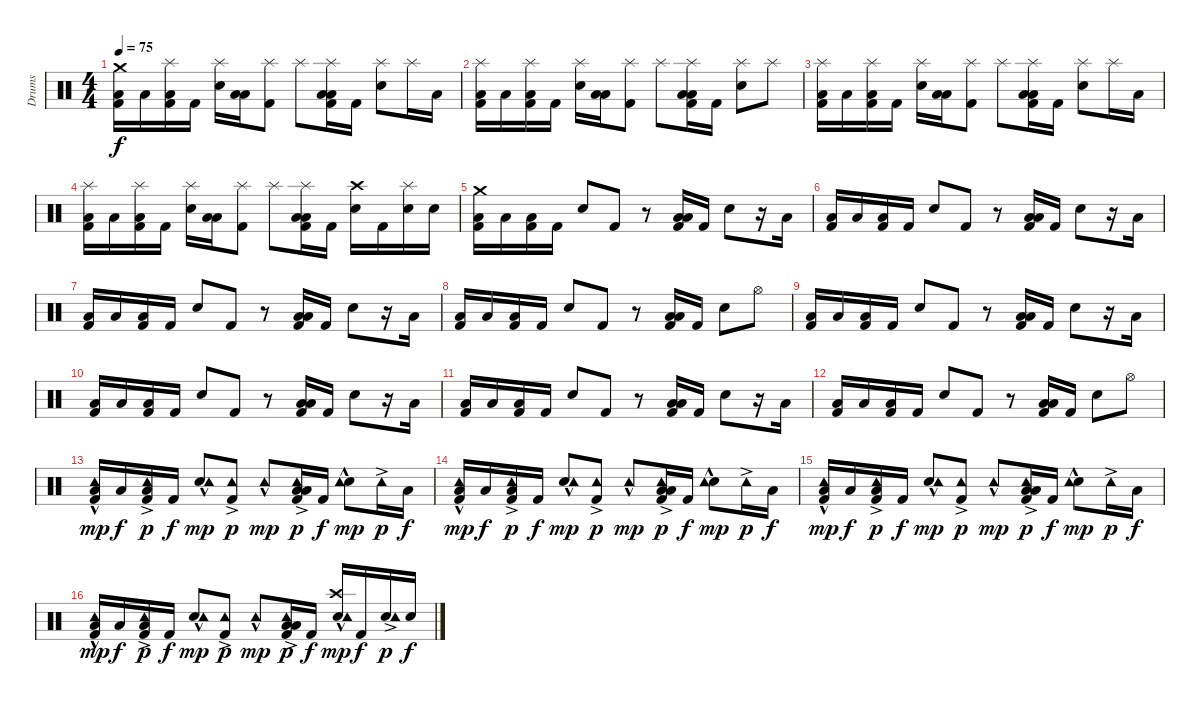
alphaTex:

\track ("Drums" "Drums") {instrument percussion}
\staff {score}
\articulation defaults
\ts (4 4)
\tempo 75
\clef neutral
\ks c
("Kick (hit) 2" "Low Floor Tom (hit)" "Crash medium (hit)").16{dy f} "Low Tom (hit)".16 ("Kick (hit) 2" "Low Floor Tom (hit)" "Splash (hit)").16 "Kick (hit) 2".16 ("Snare (hit) 2" "Splash (hit)").16 ("Low Tom (hit)" "Low Floor Tom (hit)").16 ("Kick (hit) 2" "Splash (hit)").8 "Splash (hit)".8 ("Kick (hit) 2" "Low Floor Tom (hit)" "Low Tom (hit)" "Splash (hit)").16 "Kick (hit) 2".16 ("Snare (hit) 2" "Splash (hit)").8 "Splash (hit)".16 "Low Tom (hit)".16 |
("Kick (hit) 2" "Low Floor Tom (hit)" "Splash (hit)").16 "Low Tom (hit)".16 ("Kick (hit) 2" "Low Floor Tom (hit)" "Splash (hit)").16 "Kick (hit) 2".16 ("Snare (hit) 2" "Splash (hit)").16 ("Low Tom (hit)" "Low Floor Tom (hit)").16 ("Kick (hit) 2" "Splash (hit)").8 "Splash (hit)".8 ("Kick (hit) 2" "Low Floor Tom (hit)" "Low Tom (hit)" "Splash (hit)").16 "Kick (hit) 2".16 ("Snare (hit) 2" "Splash (hit)").8 "Splash (hit)".8 |
("Kick (hit) 2" "Low Floor Tom (hit)" "Splash (hit)").16 "Low Tom (hit)".16 ("Kick (hit) 2" "Low Floor Tom (hit)" "Splash (hit)").16 "Kick (hit) 2".16 ("Snare (hit) 2" "Splash (hit)").16 ("Low Tom (hit)" "Low Floor Tom (hit)").16 ("Kick (hit) 2" "Splash (hit)").8 "Splash (hit)".8 ("Kick (hit) 2" "Low Floor Tom (hit)" "Low Tom (hit)" "Splash (hit)").16 "Kick (hit) 2".16 ("Snare (hit) 2" "Splash (hit)").8 "Splash (hit)".16 "Low Tom (hit)".16 |
("Kick (hit) 2" "Low Floor Tom (hit)" "Splash (hit)").16 "Low Tom (hit)".16 ("Kick (hit) 2" "Low Floor Tom (hit)" "Splash (hit)").16 "Kick (hit) 2".16 ("Snare (hit) 2" "Splash (hit)").16 ("Low Tom (hit)" "Low Floor Tom (hit)").16 ("Kick (hit) 2" "Splash (hit)").8 "Splash (hit)".8 ("Kick (hit) 2" "Low Floor Tom (hit)" "Low Tom (hit)" "Splash (hit)").16 "Kick (hit) 2".16 ("Snare (hit) 2" "Crash high (hit)").16 "Kick (hit) 2".16 ("Snare (hit) 2" "Splash (hit)").16 "Snare (hit) 2".16 |
("Kick (hit) 2" "Low Floor Tom (hit)" "Crash medium (hit)").16 "Low Tom (hit)".16 ("Kick (hit) 2" "Low Floor Tom (hit)").16 "Kick (hit) 2".16 "Snare (hit) 2".8 "Kick (hit) 2".8 r.8 ("Kick (hit) 2" "Low Floor Tom (hit)" "Low Tom (hit)").16 "Kick (hit) 2".16 "Snare (hit) 2".8 r.16 "Low Tom (hit)".16 |
("Kick (hit) 2" "Low Floor Tom (hit)").16 "Low Tom (hit)".16 ("Kick (hit) 2" "Low Floor Tom (hit)").16 "Kick (hit) 2".16 "Snare (hit) 2".8 "Kick (hit) 2".8 r.8 ("Kick (hit) 2" "Low Floor Tom (hit)" "Low Tom (hit)").16 "Kick (hit) 2".16 "Snare (hit) 2".8 r.16 "Low Tom (hit)".16 |
("Kick (hit) 2" "Low Floor Tom (hit)").16 "Low Tom (hit)".16 ("Kick (hit) 2" "Low Floor Tom (hit)").16 "Kick (hit) 2".16 "Snare (hit) 2".8 "Kick (hit) 2".8 r.8 ("Kick (hit) 2" "Low Floor Tom (hit)" "Low Tom (hit)").16 "Kick (hit) 2".16 "Snare (hit) 2".8 r.16 "Low Tom (hit)".16 |
("Kick (hit) 2" "Low Floor Tom (hit)").16 "Low Tom (hit)".16 ("Kick (hit) 2" "Low Floor Tom (hit)").16 "Kick (hit) 2".16 "Snare (hit) 2".8 "Kick (hit) 2".8 r.8 ("Kick (hit) 2" "Low Floor Tom (hit)" "Low Tom (hit)").16 "Kick (hit) 2".16 "Snare (hit) 2".8 "Hi-Hat (open)".8 |
("Kick (hit) 2" "Low Floor Tom (hit)").16 "Low Tom (hit)".16 ("Kick (hit) 2" "Low Floor Tom (hit)").16 "Kick (hit) 2".16 "Snare (hit) 2".8 "Kick (hit) 2".8 r.8 ("Kick (hit) 2" "Low Floor Tom (hit)" "Low Tom (hit)").16 "Kick (hit) 2".16 "Snare (hit) 2".8 r.16 "Low Tom (hit)".16 |
("Kick (hit) 2" "Low Floor Tom (hit)").16 "Low Tom (hit)".16 ("Kick (hit) 2" "Low Floor Tom (hit)").16 "Kick (hit) 2".16 "Snare (hit) 2".8 "Kick (hit) 2".8 r.8 ("Kick (hit) 2" "Low Floor Tom (hit)" "Low Tom (hit)").16 "Kick (hit) 2".16 "Snare (hit) 2".8 r.16 "Low Tom (hit)".16 |
("Kick (hit) 2" "Low Floor Tom (hit)").16 "Low Tom (hit)".16 ("Kick (hit) 2" "Low Floor Tom (hit)").16 "Kick (hit) 2".16 "Snare (hit) 2".8 "Kick (hit) 2".8 r.8 ("Kick (hit) 2" "Low Floor Tom (hit)" "Low Tom (hit)").16 "Kick (hit) 2".16 "Snare (hit) 2".8 r.16 "Low Tom (hit)".16 |
("Kick (hit) 2" "Low Floor Tom (hit)").16 "Low Tom (hit)".16 ("Kick (hit) 2" "Low Floor Tom (hit)").16 "Kick (hit) 2".16 "Snare (hit) 2".8 "Kick (hit) 2".8 r.8 ("Kick (hit) 2" "Low Floor Tom (hit)" "Low Tom (hit)").16 "Kick (hit) 2".16 "Snare (hit) 2".8 "Hi-Hat (open)".8 |
("Kick (hit) 2" "Low Floor Tom (hit)" "Tambourine (hit)"{hac}).16{dy mp} "Low Tom (hit)".16{dy f} ("Kick (hit) 2" "Low Floor Tom (hit)" "Tambourine (hit)"{ac}).16{dy p} "Kick (hit) 2".16{dy f} ("Snare (hit) 2" "Tambourine (hit)"{hac}).8{dy mp} ("Kick (hit) 2" "Tambourine (hit)"{ac}).8{dy p} "Tambourine (hit)"{hac}.8{dy mp} ("Kick (hit) 2" "Low Floor Tom (hit)" "Low Tom (hit)" "Tambourine (hit)"{ac}).16{dy p} "Kick (hit) 2".16{dy f} ("Snare (hit) 2" "Tambourine (hit)"{hac}).8{dy mp} "Tambourine (hit)"{ac}.16{dy p} "Low Tom (hit)".16{dy f} |
("Kick (hit) 2" "Low Floor Tom (hit)" "Tambourine (hit)"{hac}).16{dy mp} "Low Tom (hit)".16{dy f} ("Kick (hit) 2" "Low Floor Tom (hit)" "Tambourine (hit)"{ac}).16{dy p} "Kick (hit) 2".16{dy f} ("Snare (hit) 2" "Tambourine (hit)"{hac}).8{dy mp} ("Kick (hit) 2" "Tambourine (hit)"{ac}).8{dy p} "Tambourine (hit)"{hac}.8{dy mp} ("Kick (hit) 2" "Low Floor Tom (hit)" "Low Tom (hit)" "Tambourine (hit)"{ac}).16{dy p} "Kick (hit) 2".16{dy f} ("Snare (hit) 2" "Tambourine (hit)"{hac}).8{dy mp} "Tambourine (hit)"{ac}.16{dy p} "Low Tom (hit)".16{dy f} |
("Kick (hit) 2" "Low Floor Tom (hit)" "Tambourine (hit)"{hac}).16{dy mp} "Low Tom (hit)".16{dy f} ("Kick (hit) 2" "Low Floor Tom (hit)" "Tambourine (hit)"{ac}).16{dy p} "Kick (hit) 2".16{dy f} ("Snare (hit) 2" "Tambourine (hit)"{hac}).8{dy mp} ("Kick (hit) 2" "Tambourine (hit)"{ac}).8{dy p} "Tambourine (hit)"{hac}.8{dy mp} ("Kick (hit) 2" "Low Floor Tom (hit)" "Low Tom (hit)" "Tambourine (hit)"{ac}).16{dy p} "Kick (hit) 2".16{dy f} ("Snare (hit) 2" "Tambourine (hit)"{hac}).8{dy mp} "Tambourine (hit)"{ac}.16{dy p} "Low Tom (hit)".16{dy f} |
("Kick (hit) 2" "Low Floor Tom (hit)" "Tambourine (hit)"{hac}).16{dy mp} "Low Tom (hit)".16{dy f} ("Kick (hit) 2" "Low Floor Tom (hit)" "Tambourine (hit)"{ac}).16{dy p} "Kick (hit) 2".16{dy f} ("Snare (hit) 2" "Tambourine (hit)"{hac}).8{dy mp} ("Kick (hit) 2" "Tambourine (hit)"{ac}).8{dy p} "Tambourine (hit)"{hac}.8{dy mp} ("Kick (hit) 2" "Low Floor Tom (hit)" "Low Tom (hit)" "Tambourine (hit)"{ac}).16{dy p} "Kick (hit) 2".16{dy f} ("Snare (hit) 2" "Tambourine (hit)"{hac} "Crash high (hit)").16{dy mp} "Kick (hit) 2".16{dy f} ("Snare (hit) 2" "Tambourine (hit)"{ac}).16{dy p} "Snare (hit) 2".16{dy f}
